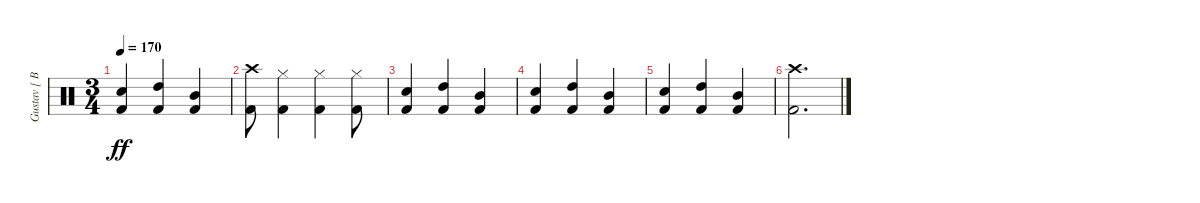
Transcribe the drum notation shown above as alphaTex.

\track ("Gustav [ Batterie ]" "Gustav [ B") {instrument percussion}
\staff {score}
\articulation defaults
\ts (3 4)
\tempo 170
\clef neutral
\ks c
("Snare (hit) 2" "Kick (hit) 2").4{dy ff} ("High Tom (hit)" "Kick (hit) 2").4 ("Mid Tom (hit)" "Kick (hit) 2").4 |
("Crash high (hit)" "Kick (hit) 2").8 ("Hi-Hat (closed)" "Kick (hit) 2").4 ("Hi-Hat (closed)" "Kick (hit) 2").4 ("Hi-Hat (closed)" "Kick (hit) 2").8 |
("Snare (hit) 2" "Kick (hit) 2").4 ("High Tom (hit)" "Kick (hit) 2").4 ("Mid Tom (hit)" "Kick (hit) 2").4 |
("Snare (hit) 2" "Kick (hit) 2").4 ("High Tom (hit)" "Kick (hit) 2").4 ("Mid Tom (hit)" "Kick (hit) 2").4 |
("Snare (hit) 2" "Kick (hit) 2").4 ("High Tom (hit)" "Kick (hit) 2").4 ("Mid Tom (hit)" "Kick (hit) 2").4 |
("Crash high (hit)" "Kick (hit) 2").2{d}
